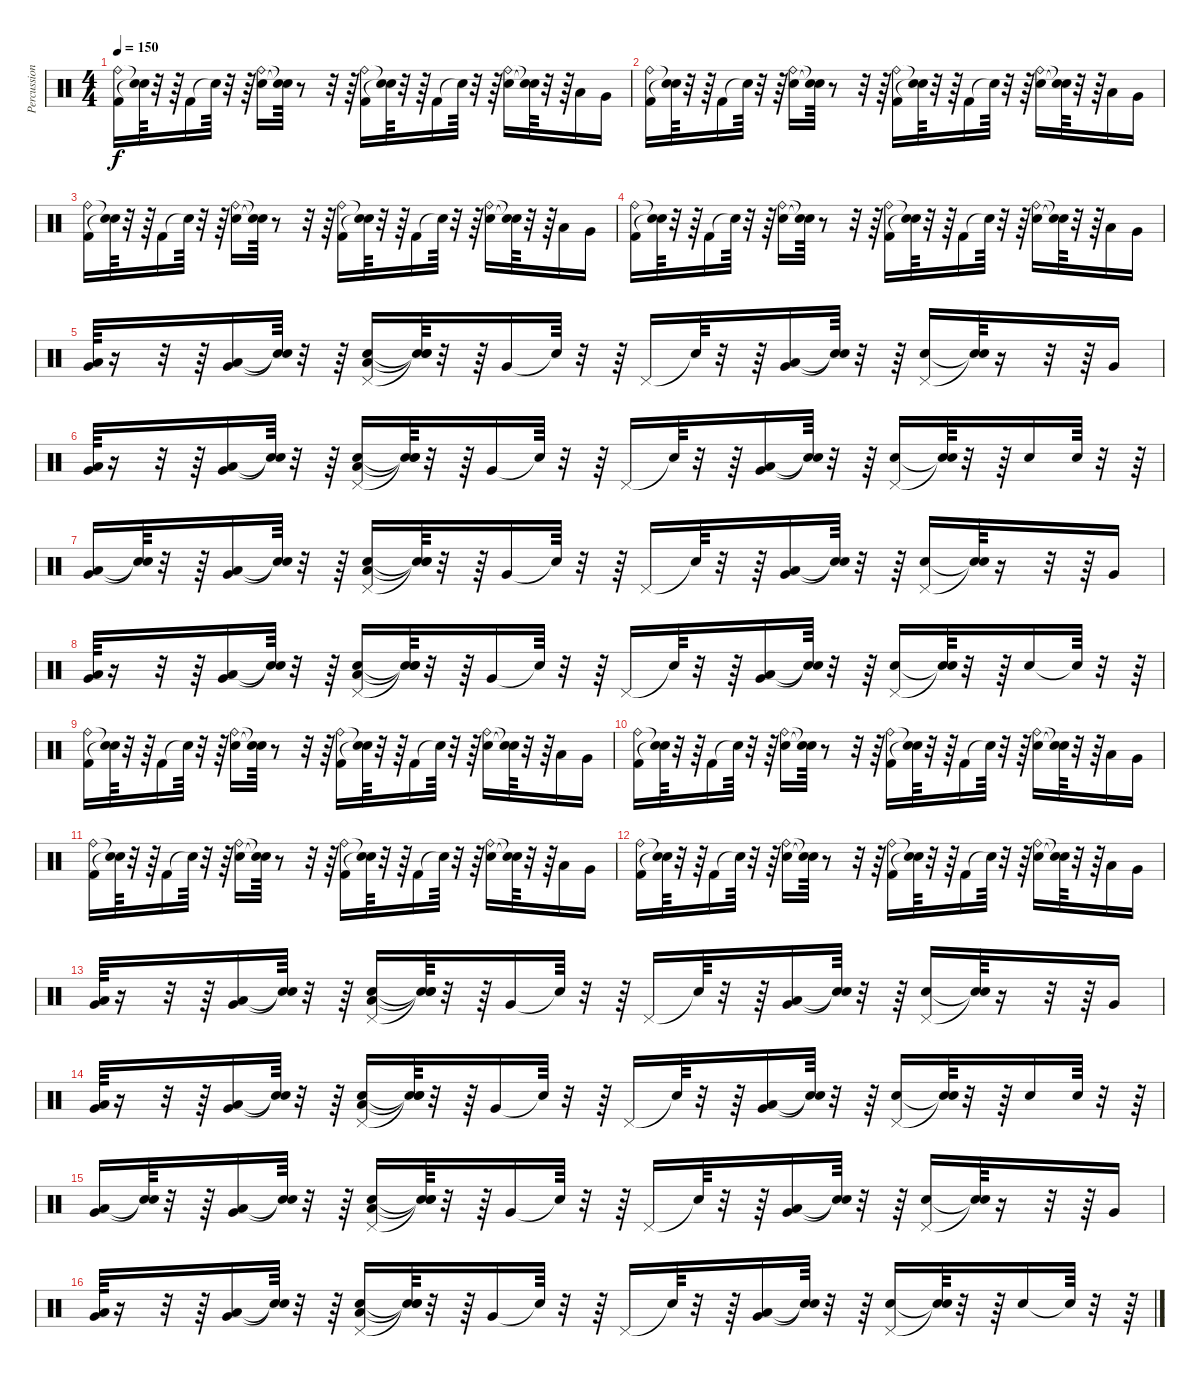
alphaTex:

\track ("Percussions" "Percussion") {instrument percussion}
\staff {score}
\articulation defaults
\ts (4 4)
\tempo 150
\clef neutral
\ks c
("Ride (bell)" "Kick (hit) 2").16{dy f} ("Snare (hit)"{t} "Snare (hit)"{t}).64 r.32 r.64 "Kick (hit) 2".16 "Snare (hit)"{t}.64 r.32 r.64 ("Ride (bell)" "Electric Snare (hit)").16 ("Snare (hit)"{t} "Snare (hit)"{t}).64 r.8 r.32 r.64 ("Ride (bell)" "Kick (hit) 2").16 ("Snare (hit)"{t} "Snare (hit)"{t}).64 r.32 r.64 "Kick (hit) 2".16 "Snare (hit)"{t}.64 r.32 r.64 ("Ride (bell)" "Electric Snare (hit)").16 ("Snare (hit)"{t} "Snare (hit)"{t}).64 r.32 r.64 "Low Tom (hit)".16 "Very Low Tom (hit)".16 |
("Ride (bell)" "Kick (hit) 2").16 ("Snare (hit)"{t} "Snare (hit)"{t}).64 r.32 r.64 "Kick (hit) 2".16 "Snare (hit)"{t}.64 r.32 r.64 ("Ride (bell)" "Electric Snare (hit)").16 ("Snare (hit)"{t} "Snare (hit)"{t}).64 r.8 r.32 r.64 ("Ride (bell)" "Kick (hit) 2").16 ("Snare (hit)"{t} "Snare (hit)"{t}).64 r.32 r.64 "Kick (hit) 2".16 "Snare (hit)"{t}.64 r.32 r.64 ("Ride (bell)" "Electric Snare (hit)").16 ("Snare (hit)"{t} "Snare (hit)"{t}).64 r.32 r.64 "Low Tom (hit)".16 "Very Low Tom (hit)".16 |
("Ride (bell)" "Kick (hit) 2").16 ("Snare (hit)"{t} "Snare (hit)"{t}).64 r.32 r.64 "Kick (hit) 2".16 "Snare (hit)"{t}.64 r.32 r.64 ("Ride (bell)" "Electric Snare (hit)").16 ("Snare (hit)"{t} "Snare (hit)"{t}).64 r.8 r.32 r.64 ("Ride (bell)" "Kick (hit) 2").16 ("Snare (hit)"{t} "Snare (hit)"{t}).64 r.32 r.64 "Kick (hit) 2".16 "Snare (hit)"{t}.64 r.32 r.64 ("Ride (bell)" "Electric Snare (hit)").16 ("Snare (hit)"{t} "Snare (hit)"{t}).64 r.32 r.64 "Low Tom (hit)".16 "Very Low Tom (hit)".16 |
("Ride (bell)" "Kick (hit) 2").16 ("Snare (hit)"{t} "Snare (hit)"{t}).64 r.32 r.64 "Kick (hit) 2".16 "Snare (hit)"{t}.64 r.32 r.64 ("Ride (bell)" "Electric Snare (hit)").16 ("Snare (hit)"{t} "Snare (hit)"{t}).64 r.8 r.32 r.64 ("Ride (bell)" "Kick (hit) 2").16 ("Snare (hit)"{t} "Snare (hit)"{t}).64 r.32 r.64 "Kick (hit) 2".16 "Snare (hit)"{t}.64 r.32 r.64 ("Ride (bell)" "Electric Snare (hit)").16 ("Snare (hit)"{t} "Snare (hit)"{t}).64 r.32 r.64 "Low Tom (hit)".16 "Very Low Tom (hit)".16 |
("Very Low Tom (hit)" "Low Floor Tom (hit)").64 r.16 r.32 r.64 ("Very Low Tom (hit)" "Low Floor Tom (hit)").16 ("Snare (hit)"{t} "Snare (hit)"{t}).64 r.32 r.64 ("Electric Snare (hit)" "Pedal Hi-Hat (hit)" "Low Floor Tom (hit)").16 ("Snare (hit)"{t} "Snare (hit)"{t} "Snare (hit)"{t}).64 r.32 r.64 "Very Low Tom (hit)".16 "Snare (hit)"{t}.64 r.32 r.64 "Pedal Hi-Hat (hit)".16 "Snare (hit)"{t}.64 r.32 r.64 ("Very Low Tom (hit)" "Low Floor Tom (hit)").16 ("Snare (hit)"{t} "Snare (hit)"{t}).64 r.32 r.64 ("Electric Snare (hit)" "Pedal Hi-Hat (hit)").16 ("Snare (hit)"{t} "Snare (hit)"{t}).64 r.16 r.32 r.64 "Very Low Tom (hit)".16 |
("Very Low Tom (hit)" "Low Floor Tom (hit)").64 r.16 r.32 r.64 ("Very Low Tom (hit)" "Low Floor Tom (hit)").16 ("Snare (hit)"{t} "Snare (hit)"{t}).64 r.32 r.64 ("Electric Snare (hit)" "Pedal Hi-Hat (hit)" "Low Floor Tom (hit)").16 ("Snare (hit)"{t} "Snare (hit)"{t} "Snare (hit)"{t}).64 r.32 r.64 "Very Low Tom (hit)".16 "Snare (hit)"{t}.64 r.32 r.64 "Pedal Hi-Hat (hit)".16 "Snare (hit)"{t}.64 r.32 r.64 ("Very Low Tom (hit)" "Low Floor Tom (hit)").16 ("Snare (hit)"{t} "Snare (hit)"{t}).64 r.32 r.64 ("Electric Snare (hit)" "Pedal Hi-Hat (hit)").16 ("Snare (hit)"{t} "Snare (hit)"{t}).64 r.32 r.64 "Electric Snare (hit)".16 "Electric Snare (hit)".64 r.32 r.64 |
("Very Low Tom (hit)" "Low Floor Tom (hit)").16 ("Snare (hit)"{t} "Snare (hit)"{t}).64 r.32 r.64 ("Very Low Tom (hit)" "Low Floor Tom (hit)").16 ("Snare (hit)"{t} "Snare (hit)"{t}).64 r.32 r.64 ("Electric Snare (hit)" "Pedal Hi-Hat (hit)" "Low Floor Tom (hit)").16 ("Snare (hit)"{t} "Snare (hit)"{t} "Snare (hit)"{t}).64 r.32 r.64 "Very Low Tom (hit)".16 "Snare (hit)"{t}.64 r.32 r.64 "Pedal Hi-Hat (hit)".16 "Snare (hit)"{t}.64 r.32 r.64 ("Very Low Tom (hit)" "Low Floor Tom (hit)").16 ("Snare (hit)"{t} "Snare (hit)"{t}).64 r.32 r.64 ("Electric Snare (hit)" "Pedal Hi-Hat (hit)").16 ("Snare (hit)"{t} "Snare (hit)"{t}).64 r.16 r.32 r.64 "Very Low Tom (hit)".16 |
("Very Low Tom (hit)" "Low Floor Tom (hit)").64 r.16 r.32 r.64 ("Very Low Tom (hit)" "Low Floor Tom (hit)").16 ("Snare (hit)"{t} "Snare (hit)"{t}).64 r.32 r.64 ("Electric Snare (hit)" "Pedal Hi-Hat (hit)" "Low Floor Tom (hit)").16 ("Snare (hit)"{t} "Snare (hit)"{t} "Snare (hit)"{t}).64 r.32 r.64 "Very Low Tom (hit)".16 "Snare (hit)"{t}.64 r.32 r.64 "Pedal Hi-Hat (hit)".16 "Snare (hit)"{t}.64 r.32 r.64 ("Very Low Tom (hit)" "Low Floor Tom (hit)").16 ("Snare (hit)"{t} "Snare (hit)"{t}).64 r.32 r.64 ("Electric Snare (hit)" "Pedal Hi-Hat (hit)").16 ("Snare (hit)"{t} "Snare (hit)"{t}).64 r.32 r.64 "Electric Snare (hit)".16 "Snare (hit)"{t}.64 r.32 r.64 |
("Ride (bell)" "Kick (hit) 2").16 ("Snare (hit)"{t} "Snare (hit)"{t}).64 r.32 r.64 "Kick (hit) 2".16 "Snare (hit)"{t}.64 r.32 r.64 ("Ride (bell)" "Electric Snare (hit)").16 ("Snare (hit)"{t} "Snare (hit)"{t}).64 r.8 r.32 r.64 ("Ride (bell)" "Kick (hit) 2").16 ("Snare (hit)"{t} "Snare (hit)"{t}).64 r.32 r.64 "Kick (hit) 2".16 "Snare (hit)"{t}.64 r.32 r.64 ("Ride (bell)" "Electric Snare (hit)").16 ("Snare (hit)"{t} "Snare (hit)"{t}).64 r.32 r.64 "Low Tom (hit)".16 "Very Low Tom (hit)".16 |
("Ride (bell)" "Kick (hit) 2").16 ("Snare (hit)"{t} "Snare (hit)"{t}).64 r.32 r.64 "Kick (hit) 2".16 "Snare (hit)"{t}.64 r.32 r.64 ("Ride (bell)" "Electric Snare (hit)").16 ("Snare (hit)"{t} "Snare (hit)"{t}).64 r.8 r.32 r.64 ("Ride (bell)" "Kick (hit) 2").16 ("Snare (hit)"{t} "Snare (hit)"{t}).64 r.32 r.64 "Kick (hit) 2".16 "Snare (hit)"{t}.64 r.32 r.64 ("Ride (bell)" "Electric Snare (hit)").16 ("Snare (hit)"{t} "Snare (hit)"{t}).64 r.32 r.64 "Low Tom (hit)".16 "Very Low Tom (hit)".16 |
("Ride (bell)" "Kick (hit) 2").16 ("Snare (hit)"{t} "Snare (hit)"{t}).64 r.32 r.64 "Kick (hit) 2".16 "Snare (hit)"{t}.64 r.32 r.64 ("Ride (bell)" "Electric Snare (hit)").16 ("Snare (hit)"{t} "Snare (hit)"{t}).64 r.8 r.32 r.64 ("Ride (bell)" "Kick (hit) 2").16 ("Snare (hit)"{t} "Snare (hit)"{t}).64 r.32 r.64 "Kick (hit) 2".16 "Snare (hit)"{t}.64 r.32 r.64 ("Ride (bell)" "Electric Snare (hit)").16 ("Snare (hit)"{t} "Snare (hit)"{t}).64 r.32 r.64 "Low Tom (hit)".16 "Very Low Tom (hit)".16 |
("Ride (bell)" "Kick (hit) 2").16 ("Snare (hit)"{t} "Snare (hit)"{t}).64 r.32 r.64 "Kick (hit) 2".16 "Snare (hit)"{t}.64 r.32 r.64 ("Ride (bell)" "Electric Snare (hit)").16 ("Snare (hit)"{t} "Snare (hit)"{t}).64 r.8 r.32 r.64 ("Ride (bell)" "Kick (hit) 2").16 ("Snare (hit)"{t} "Snare (hit)"{t}).64 r.32 r.64 "Kick (hit) 2".16 "Snare (hit)"{t}.64 r.32 r.64 ("Ride (bell)" "Electric Snare (hit)").16 ("Snare (hit)"{t} "Snare (hit)"{t}).64 r.32 r.64 "Low Tom (hit)".16 "Very Low Tom (hit)".16 |
("Very Low Tom (hit)" "Low Floor Tom (hit)").64 r.16 r.32 r.64 ("Very Low Tom (hit)" "Low Floor Tom (hit)").16 ("Snare (hit)"{t} "Snare (hit)"{t}).64 r.32 r.64 ("Electric Snare (hit)" "Pedal Hi-Hat (hit)" "Low Floor Tom (hit)").16 ("Snare (hit)"{t} "Snare (hit)"{t} "Snare (hit)"{t}).64 r.32 r.64 "Very Low Tom (hit)".16 "Snare (hit)"{t}.64 r.32 r.64 "Pedal Hi-Hat (hit)".16 "Snare (hit)"{t}.64 r.32 r.64 ("Very Low Tom (hit)" "Low Floor Tom (hit)").16 ("Snare (hit)"{t} "Snare (hit)"{t}).64 r.32 r.64 ("Electric Snare (hit)" "Pedal Hi-Hat (hit)").16 ("Snare (hit)"{t} "Snare (hit)"{t}).64 r.16 r.32 r.64 "Very Low Tom (hit)".16 |
("Very Low Tom (hit)" "Low Floor Tom (hit)").64 r.16 r.32 r.64 ("Very Low Tom (hit)" "Low Floor Tom (hit)").16 ("Snare (hit)"{t} "Snare (hit)"{t}).64 r.32 r.64 ("Electric Snare (hit)" "Pedal Hi-Hat (hit)" "Low Floor Tom (hit)").16 ("Snare (hit)"{t} "Snare (hit)"{t} "Snare (hit)"{t}).64 r.32 r.64 "Very Low Tom (hit)".16 "Snare (hit)"{t}.64 r.32 r.64 "Pedal Hi-Hat (hit)".16 "Snare (hit)"{t}.64 r.32 r.64 ("Very Low Tom (hit)" "Low Floor Tom (hit)").16 ("Snare (hit)"{t} "Snare (hit)"{t}).64 r.32 r.64 ("Electric Snare (hit)" "Pedal Hi-Hat (hit)").16 ("Snare (hit)"{t} "Snare (hit)"{t}).64 r.32 r.64 "Electric Snare (hit)".16 "Electric Snare (hit)".64 r.32 r.64 |
("Very Low Tom (hit)" "Low Floor Tom (hit)").16 ("Snare (hit)"{t} "Snare (hit)"{t}).64 r.32 r.64 ("Very Low Tom (hit)" "Low Floor Tom (hit)").16 ("Snare (hit)"{t} "Snare (hit)"{t}).64 r.32 r.64 ("Electric Snare (hit)" "Pedal Hi-Hat (hit)" "Low Floor Tom (hit)").16 ("Snare (hit)"{t} "Snare (hit)"{t} "Snare (hit)"{t}).64 r.32 r.64 "Very Low Tom (hit)".16 "Snare (hit)"{t}.64 r.32 r.64 "Pedal Hi-Hat (hit)".16 "Snare (hit)"{t}.64 r.32 r.64 ("Very Low Tom (hit)" "Low Floor Tom (hit)").16 ("Snare (hit)"{t} "Snare (hit)"{t}).64 r.32 r.64 ("Electric Snare (hit)" "Pedal Hi-Hat (hit)").16 ("Snare (hit)"{t} "Snare (hit)"{t}).64 r.16 r.32 r.64 "Very Low Tom (hit)".16 |
("Very Low Tom (hit)" "Low Floor Tom (hit)").64 r.16 r.32 r.64 ("Very Low Tom (hit)" "Low Floor Tom (hit)").16 ("Snare (hit)"{t} "Snare (hit)"{t}).64 r.32 r.64 ("Electric Snare (hit)" "Pedal Hi-Hat (hit)" "Low Floor Tom (hit)").16 ("Snare (hit)"{t} "Snare (hit)"{t} "Snare (hit)"{t}).64 r.32 r.64 "Very Low Tom (hit)".16 "Snare (hit)"{t}.64 r.32 r.64 "Pedal Hi-Hat (hit)".16 "Snare (hit)"{t}.64 r.32 r.64 ("Very Low Tom (hit)" "Low Floor Tom (hit)").16 ("Snare (hit)"{t} "Snare (hit)"{t}).64 r.32 r.64 ("Electric Snare (hit)" "Pedal Hi-Hat (hit)").16 ("Snare (hit)"{t} "Snare (hit)"{t}).64 r.32 r.64 "Electric Snare (hit)".16 "Snare (hit)"{t}.64 r.32 r.64
